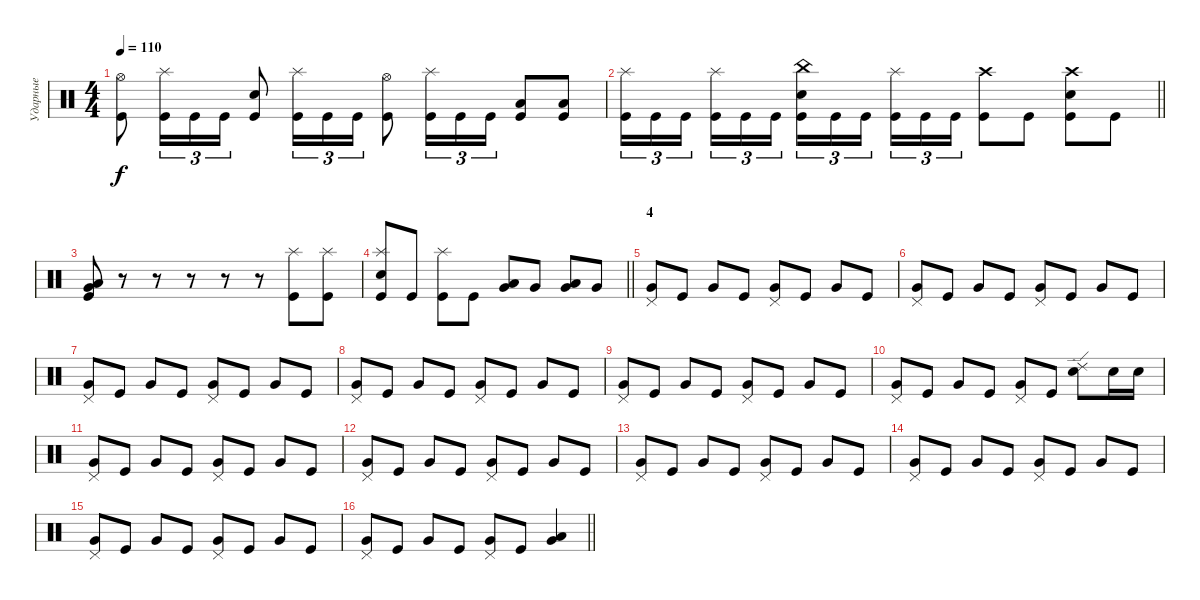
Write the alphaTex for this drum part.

\track ("Ударные" "Ударные") {instrument percussion}
\staff {score}
\articulation defaults
\ts (4 4)
\tempo 110
\clef neutral
\ks c
("Hi-Hat (open)" "Kick (hit)").8{dy f} ("Splash (hit)" "Kick (hit)").16{tu (3 2)} "Kick (hit)".16{tu (3 2)} "Kick (hit)".16{tu (3 2)} ("Electric Snare (hit)" "Kick (hit)").8 ("Splash (hit)" "Kick (hit)").16{tu (3 2)} "Kick (hit)".16{tu (3 2)} "Kick (hit)".16{tu (3 2)} ("Hi-Hat (open)" "Kick (hit)").8 ("Splash (hit)" "Kick (hit)").16{tu (3 2)} "Kick (hit)".16{tu (3 2)} "Kick (hit)".16{tu (3 2)} ("Low Floor Tom (hit)" "Kick (hit)").8 ("Low Floor Tom (hit)" "Kick (hit)").8 |
\barLineRight lightlight
("Splash (hit)" "Kick (hit)").16{tu (3 2)} "Kick (hit)".16{tu (3 2)} "Kick (hit)".16{tu (3 2) beam splitsecondary} ("Splash (hit)" "Kick (hit)").16{tu (3 2)} "Kick (hit)".16{tu (3 2)} "Kick (hit)".16{tu (3 2)} ("China (hit)" "Electric Snare (hit)" "Kick (hit)").16{tu (3 2)} "Kick (hit)".16{tu (3 2)} "Kick (hit)".16{tu (3 2) beam splitsecondary} ("Splash (hit)" "Kick (hit)").16{tu (3 2)} "Kick (hit)".16{tu (3 2)} "Kick (hit)".16{tu (3 2)} ("Crash high (hit)" "Kick (hit)").8 "Kick (hit)".8 ("Crash high (hit)" "Electric Snare (hit)" "Kick (hit)").8 "Kick (hit)".8 |
\section ("" " ")
("Low Tom (hit)" "Very Low Tom (hit)" "Kick (hit)").8 r.8 r.8 r.8 r.8 r.8 ("Splash (hit)" "Kick (hit)").8 ("Splash (hit)" "Kick (hit)").8 |
\barLineRight lightlight
("Splash (hit)" "Electric Snare (hit)" "Kick (hit)").8 "Kick (hit)".8 ("Splash (hit)" "Kick (hit)").8 "Kick (hit)".8 ("Low Tom (hit)" "Very Low Tom (hit)").8 "Very Low Tom (hit)".8 ("Low Floor Tom (hit)" "Very Low Tom (hit)").8 "Very Low Tom (hit)".8 |
\section ("" "4")
("Pedal Hi-Hat (hit)" "Very Low Tom (hit)").8 "Kick (hit)".8 "Very Low Tom (hit)".8 "Kick (hit)".8 ("Pedal Hi-Hat (hit)" "Very Low Tom (hit)").8 "Kick (hit)".8 "Very Low Tom (hit)".8 "Kick (hit)".8 |
("Pedal Hi-Hat (hit)" "Very Low Tom (hit)").8 "Kick (hit)".8 "Very Low Tom (hit)".8 "Kick (hit)".8 ("Pedal Hi-Hat (hit)" "Very Low Tom (hit)").8 "Kick (hit)".8 "Very Low Tom (hit)".8 "Kick (hit)".8 |
("Pedal Hi-Hat (hit)" "Very Low Tom (hit)").8 "Kick (hit)".8 "Very Low Tom (hit)".8 "Kick (hit)".8 ("Pedal Hi-Hat (hit)" "Very Low Tom (hit)").8 "Kick (hit)".8 "Very Low Tom (hit)".8 "Kick (hit)".8 |
("Pedal Hi-Hat (hit)" "Very Low Tom (hit)").8 "Kick (hit)".8 "Very Low Tom (hit)".8 "Kick (hit)".8 ("Pedal Hi-Hat (hit)" "Very Low Tom (hit)").8 "Kick (hit)".8 "Very Low Tom (hit)".8 "Kick (hit)".8 |
("Pedal Hi-Hat (hit)" "Very Low Tom (hit)").8 "Kick (hit)".8 "Very Low Tom (hit)".8 "Kick (hit)".8 ("Pedal Hi-Hat (hit)" "Very Low Tom (hit)").8 "Kick (hit)".8 "Very Low Tom (hit)".8 "Kick (hit)".8 |
("Pedal Hi-Hat (hit)" "Very Low Tom (hit)").8 "Kick (hit)".8 "Very Low Tom (hit)".8 "Kick (hit)".8 ("Pedal Hi-Hat (hit)" "Very Low Tom (hit)").8 "Kick (hit)".8 ("Ride (edge) 2" "Electric Snare (hit)").8 "Electric Snare (hit)".16 "Electric Snare (hit)".16 |
("Pedal Hi-Hat (hit)" "Very Low Tom (hit)").8 "Kick (hit)".8 "Very Low Tom (hit)".8 "Kick (hit)".8 ("Pedal Hi-Hat (hit)" "Very Low Tom (hit)").8 "Kick (hit)".8 "Very Low Tom (hit)".8 "Kick (hit)".8 |
("Pedal Hi-Hat (hit)" "Very Low Tom (hit)").8 "Kick (hit)".8 "Very Low Tom (hit)".8 "Kick (hit)".8 ("Pedal Hi-Hat (hit)" "Very Low Tom (hit)").8 "Kick (hit)".8 "Very Low Tom (hit)".8 "Kick (hit)".8 |
("Pedal Hi-Hat (hit)" "Very Low Tom (hit)").8 "Kick (hit)".8 "Very Low Tom (hit)".8 "Kick (hit)".8 ("Pedal Hi-Hat (hit)" "Very Low Tom (hit)").8 "Kick (hit)".8 "Very Low Tom (hit)".8 "Kick (hit)".8 |
("Pedal Hi-Hat (hit)" "Very Low Tom (hit)").8 "Kick (hit)".8 "Very Low Tom (hit)".8 "Kick (hit)".8 ("Pedal Hi-Hat (hit)" "Very Low Tom (hit)").8 "Kick (hit)".8 "Very Low Tom (hit)".8 "Kick (hit)".8 |
("Pedal Hi-Hat (hit)" "Very Low Tom (hit)").8 "Kick (hit)".8 "Very Low Tom (hit)".8 "Kick (hit)".8 ("Pedal Hi-Hat (hit)" "Very Low Tom (hit)").8 "Kick (hit)".8 "Very Low Tom (hit)".8 "Kick (hit)".8 |
\barLineRight lightlight
("Pedal Hi-Hat (hit)" "Very Low Tom (hit)").8 "Kick (hit)".8 "Very Low Tom (hit)".8 "Kick (hit)".8 ("Pedal Hi-Hat (hit)" "Very Low Tom (hit)").8 "Kick (hit)".8 ("Low Floor Tom (hit)" "Very Low Tom (hit)").4
